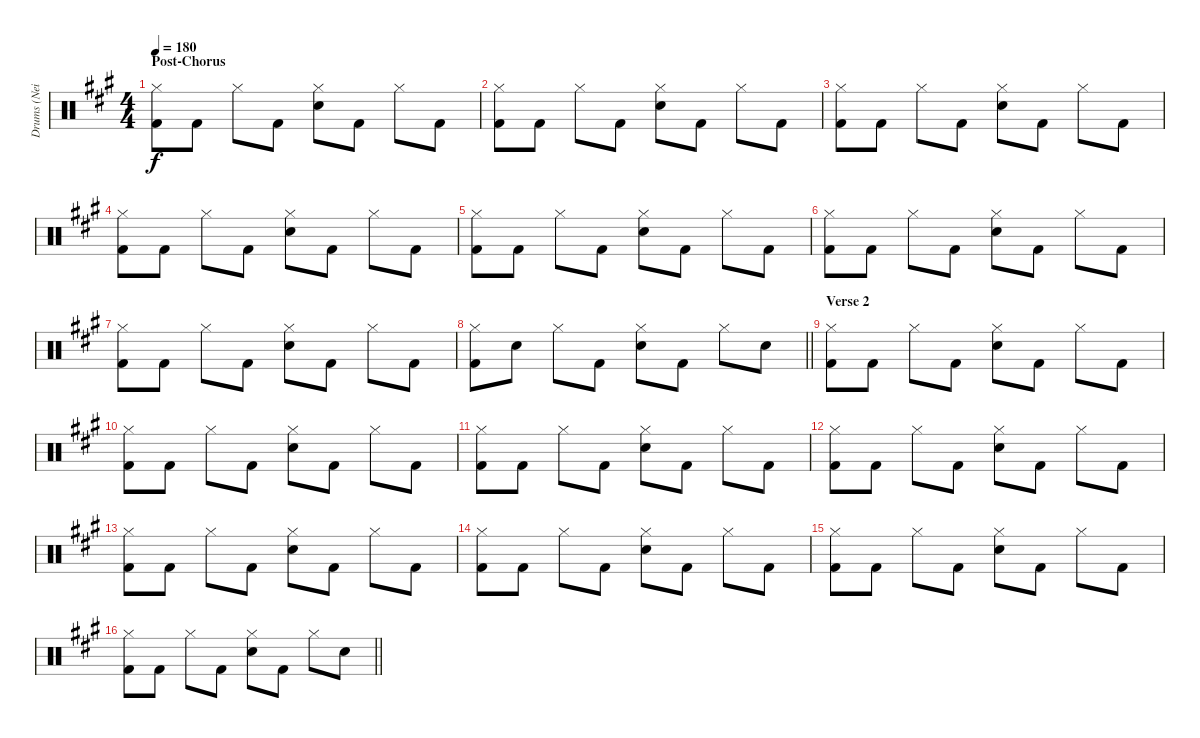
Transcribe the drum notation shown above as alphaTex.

\track ("Drums (Neil Sanderson)" "Drums (Nei") {instrument percussion}
\staff {score}
\articulation defaults
\ts (4 4)
\section ("" "Post-Chorus")
\tempo 180
\clef neutral
\ks f#minor
("Hi-Hat (closed)" "Kick (hit) 2").8{dy f} "Kick (hit) 2".8 "Hi-Hat (closed)".8 "Kick (hit) 2".8 ("Hi-Hat (closed)" "Electric Snare (hit)").8 "Kick (hit) 2".8 "Hi-Hat (closed)".8 "Kick (hit) 2".8 |
("Hi-Hat (closed)" "Kick (hit) 2").8 "Kick (hit) 2".8 "Hi-Hat (closed)".8 "Kick (hit) 2".8 ("Hi-Hat (closed)" "Electric Snare (hit)").8 "Kick (hit) 2".8 "Hi-Hat (closed)".8 "Kick (hit) 2".8 |
("Hi-Hat (closed)" "Kick (hit) 2").8 "Kick (hit) 2".8 "Hi-Hat (closed)".8 "Kick (hit) 2".8 ("Hi-Hat (closed)" "Electric Snare (hit)").8 "Kick (hit) 2".8 "Hi-Hat (closed)".8 "Kick (hit) 2".8 |
("Hi-Hat (closed)" "Kick (hit) 2").8 "Kick (hit) 2".8 "Hi-Hat (closed)".8 "Kick (hit) 2".8 ("Hi-Hat (closed)" "Electric Snare (hit)").8 "Kick (hit) 2".8 "Hi-Hat (closed)".8 "Kick (hit) 2".8 |
("Hi-Hat (closed)" "Kick (hit) 2").8 "Kick (hit) 2".8 "Hi-Hat (closed)".8 "Kick (hit) 2".8 ("Hi-Hat (closed)" "Electric Snare (hit)").8 "Kick (hit) 2".8 "Hi-Hat (closed)".8 "Kick (hit) 2".8 |
("Hi-Hat (closed)" "Kick (hit) 2").8 "Kick (hit) 2".8 "Hi-Hat (closed)".8 "Kick (hit) 2".8 ("Hi-Hat (closed)" "Electric Snare (hit)").8 "Kick (hit) 2".8 "Hi-Hat (closed)".8 "Kick (hit) 2".8 |
("Hi-Hat (closed)" "Kick (hit) 2").8 "Kick (hit) 2".8 "Hi-Hat (closed)".8 "Kick (hit) 2".8 ("Hi-Hat (closed)" "Electric Snare (hit)").8 "Kick (hit) 2".8 "Hi-Hat (closed)".8 "Kick (hit) 2".8 |
\barLineRight lightlight
("Hi-Hat (closed)" "Kick (hit) 2").8 "Electric Snare (hit)".8 "Hi-Hat (closed)".8 "Kick (hit) 2".8 ("Hi-Hat (closed)" "Electric Snare (hit)").8 "Kick (hit) 2".8 "Hi-Hat (closed)".8 "Electric Snare (hit)".8 |
\section ("" "Verse 2")
("Hi-Hat (closed)" "Kick (hit) 2").8 "Kick (hit) 2".8 "Hi-Hat (closed)".8 "Kick (hit) 2".8 ("Hi-Hat (closed)" "Electric Snare (hit)").8 "Kick (hit) 2".8 "Hi-Hat (closed)".8 "Kick (hit) 2".8 |
("Hi-Hat (closed)" "Kick (hit) 2").8 "Kick (hit) 2".8 "Hi-Hat (closed)".8 "Kick (hit) 2".8 ("Hi-Hat (closed)" "Electric Snare (hit)").8 "Kick (hit) 2".8 "Hi-Hat (closed)".8 "Kick (hit) 2".8 |
("Hi-Hat (closed)" "Kick (hit) 2").8 "Kick (hit) 2".8 "Hi-Hat (closed)".8 "Kick (hit) 2".8 ("Hi-Hat (closed)" "Electric Snare (hit)").8 "Kick (hit) 2".8 "Hi-Hat (closed)".8 "Kick (hit) 2".8 |
("Hi-Hat (closed)" "Kick (hit) 2").8 "Kick (hit) 2".8 "Hi-Hat (closed)".8 "Kick (hit) 2".8 ("Hi-Hat (closed)" "Electric Snare (hit)").8 "Kick (hit) 2".8 "Hi-Hat (closed)".8 "Kick (hit) 2".8 |
("Hi-Hat (closed)" "Kick (hit) 2").8 "Kick (hit) 2".8 "Hi-Hat (closed)".8 "Kick (hit) 2".8 ("Hi-Hat (closed)" "Electric Snare (hit)").8 "Kick (hit) 2".8 "Hi-Hat (closed)".8 "Kick (hit) 2".8 |
("Hi-Hat (closed)" "Kick (hit) 2").8 "Kick (hit) 2".8 "Hi-Hat (closed)".8 "Kick (hit) 2".8 ("Hi-Hat (closed)" "Electric Snare (hit)").8 "Kick (hit) 2".8 "Hi-Hat (closed)".8 "Kick (hit) 2".8 |
("Hi-Hat (closed)" "Kick (hit) 2").8 "Kick (hit) 2".8 "Hi-Hat (closed)".8 "Kick (hit) 2".8 ("Hi-Hat (closed)" "Electric Snare (hit)").8 "Kick (hit) 2".8 "Hi-Hat (closed)".8 "Kick (hit) 2".8 |
\barLineRight lightlight
("Hi-Hat (closed)" "Kick (hit) 2").8 "Kick (hit) 2".8 "Hi-Hat (closed)".8 "Kick (hit) 2".8 ("Hi-Hat (closed)" "Electric Snare (hit)").8 "Kick (hit) 2".8 "Hi-Hat (closed)".8 "Electric Snare (hit)".8
